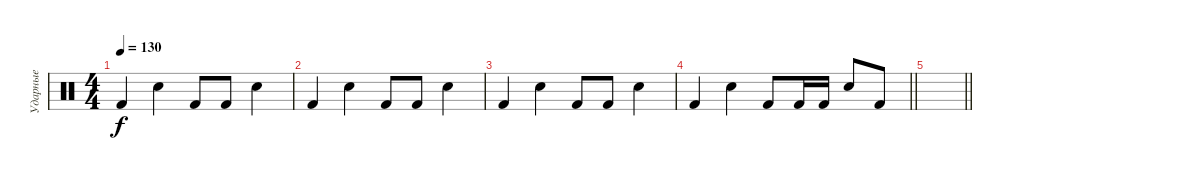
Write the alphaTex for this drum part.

\track ("Ударные" "Ударные") {instrument percussion}
\staff {score}
\articulation defaults
\ts (4 4)
\tempo 130
\clef neutral
\ks c "Kick (hit) 2".4{dy f} "Electric Snare (hit)".4 "Kick (hit) 2".8 "Kick (hit) 2".8 "Electric Snare (hit)".4
|
"Kick (hit) 2".4 "Electric Snare (hit)".4 "Kick (hit) 2".8 "Kick (hit) 2".8 "Electric Snare (hit)".4 |
"Kick (hit) 2".4 "Electric Snare (hit)".4 "Kick (hit) 2".8 "Kick (hit) 2".8 "Electric Snare (hit)".4 |
\barLineRight lightlight "Kick (hit) 2".4 "Electric Snare (hit)".4 "Kick (hit) 2".8 "Kick (hit) 2".16 "Kick (hit) 2".16 "Electric Snare (hit)".8 "Kick (hit) 2".8
|
\barLineRight lightlight
